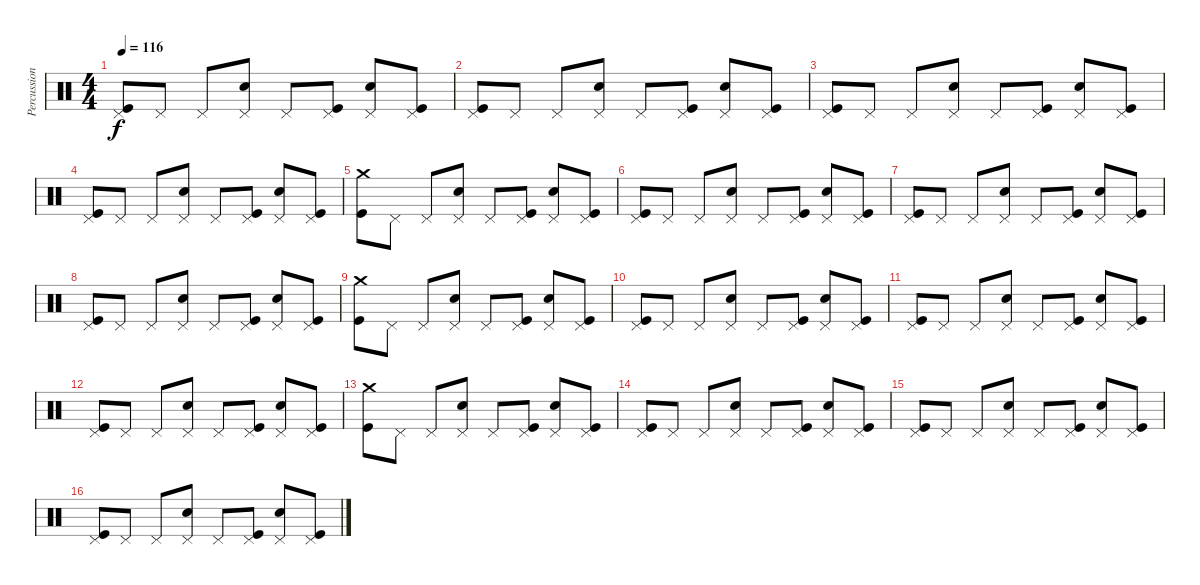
\track ("Percussions" "Percussion") {instrument percussion}
\staff {score}
\articulation defaults
\ts (4 4)
\tempo 116
\clef neutral
\ks c
("Pedal Hi-Hat (hit)" "Kick (hit)").8{dy f} "Pedal Hi-Hat (hit)".8 "Pedal Hi-Hat (hit)".8 ("Pedal Hi-Hat (hit)" "Snare (hit) 2").8 "Pedal Hi-Hat (hit)".8 ("Pedal Hi-Hat (hit)" "Kick (hit)").8 ("Pedal Hi-Hat (hit)" "Snare (hit) 2").8 ("Pedal Hi-Hat (hit)" "Kick (hit)").8 |
("Pedal Hi-Hat (hit)" "Kick (hit)").8 "Pedal Hi-Hat (hit)".8 "Pedal Hi-Hat (hit)".8 ("Pedal Hi-Hat (hit)" "Snare (hit) 2").8 "Pedal Hi-Hat (hit)".8 ("Pedal Hi-Hat (hit)" "Kick (hit)").8 ("Pedal Hi-Hat (hit)" "Snare (hit) 2").8 ("Pedal Hi-Hat (hit)" "Kick (hit)").8 |
("Pedal Hi-Hat (hit)" "Kick (hit)").8 "Pedal Hi-Hat (hit)".8 "Pedal Hi-Hat (hit)".8 ("Pedal Hi-Hat (hit)" "Snare (hit) 2").8 "Pedal Hi-Hat (hit)".8 ("Pedal Hi-Hat (hit)" "Kick (hit)").8 ("Pedal Hi-Hat (hit)" "Snare (hit) 2").8 ("Pedal Hi-Hat (hit)" "Kick (hit)").8 |
("Pedal Hi-Hat (hit)" "Kick (hit)").8 "Pedal Hi-Hat (hit)".8 "Pedal Hi-Hat (hit)".8 ("Pedal Hi-Hat (hit)" "Snare (hit) 2").8 "Pedal Hi-Hat (hit)".8 ("Pedal Hi-Hat (hit)" "Kick (hit)").8 ("Pedal Hi-Hat (hit)" "Snare (hit) 2").8 ("Pedal Hi-Hat (hit)" "Kick (hit)").8 |
("Crash medium (hit)" "Kick (hit)").8 "Pedal Hi-Hat (hit)".8 "Pedal Hi-Hat (hit)".8 ("Pedal Hi-Hat (hit)" "Snare (hit) 2").8 "Pedal Hi-Hat (hit)".8 ("Pedal Hi-Hat (hit)" "Kick (hit)").8 ("Pedal Hi-Hat (hit)" "Snare (hit) 2").8 ("Pedal Hi-Hat (hit)" "Kick (hit)").8 |
("Pedal Hi-Hat (hit)" "Kick (hit)").8 "Pedal Hi-Hat (hit)".8 "Pedal Hi-Hat (hit)".8 ("Pedal Hi-Hat (hit)" "Snare (hit) 2").8 "Pedal Hi-Hat (hit)".8 ("Pedal Hi-Hat (hit)" "Kick (hit)").8 ("Pedal Hi-Hat (hit)" "Snare (hit) 2").8 ("Pedal Hi-Hat (hit)" "Kick (hit)").8 |
("Pedal Hi-Hat (hit)" "Kick (hit)").8 "Pedal Hi-Hat (hit)".8 "Pedal Hi-Hat (hit)".8 ("Pedal Hi-Hat (hit)" "Snare (hit) 2").8 "Pedal Hi-Hat (hit)".8 ("Pedal Hi-Hat (hit)" "Kick (hit)").8 ("Pedal Hi-Hat (hit)" "Snare (hit) 2").8 ("Pedal Hi-Hat (hit)" "Kick (hit)").8 |
("Pedal Hi-Hat (hit)" "Kick (hit)").8 "Pedal Hi-Hat (hit)".8 "Pedal Hi-Hat (hit)".8 ("Pedal Hi-Hat (hit)" "Snare (hit) 2").8 "Pedal Hi-Hat (hit)".8 ("Pedal Hi-Hat (hit)" "Kick (hit)").8 ("Pedal Hi-Hat (hit)" "Snare (hit) 2").8 ("Pedal Hi-Hat (hit)" "Kick (hit)").8 |
("Crash medium (hit)" "Kick (hit)").8 "Pedal Hi-Hat (hit)".8 "Pedal Hi-Hat (hit)".8 ("Pedal Hi-Hat (hit)" "Snare (hit) 2").8 "Pedal Hi-Hat (hit)".8 ("Pedal Hi-Hat (hit)" "Kick (hit)").8 ("Pedal Hi-Hat (hit)" "Snare (hit) 2").8 ("Pedal Hi-Hat (hit)" "Kick (hit)").8 |
("Pedal Hi-Hat (hit)" "Kick (hit)").8 "Pedal Hi-Hat (hit)".8 "Pedal Hi-Hat (hit)".8 ("Pedal Hi-Hat (hit)" "Snare (hit) 2").8 "Pedal Hi-Hat (hit)".8 ("Pedal Hi-Hat (hit)" "Kick (hit)").8 ("Pedal Hi-Hat (hit)" "Snare (hit) 2").8 ("Pedal Hi-Hat (hit)" "Kick (hit)").8 |
("Pedal Hi-Hat (hit)" "Kick (hit)").8 "Pedal Hi-Hat (hit)".8 "Pedal Hi-Hat (hit)".8 ("Pedal Hi-Hat (hit)" "Snare (hit) 2").8 "Pedal Hi-Hat (hit)".8 ("Pedal Hi-Hat (hit)" "Kick (hit)").8 ("Pedal Hi-Hat (hit)" "Snare (hit) 2").8 ("Pedal Hi-Hat (hit)" "Kick (hit)").8 |
("Pedal Hi-Hat (hit)" "Kick (hit)").8 "Pedal Hi-Hat (hit)".8 "Pedal Hi-Hat (hit)".8 ("Pedal Hi-Hat (hit)" "Snare (hit) 2").8 "Pedal Hi-Hat (hit)".8 ("Pedal Hi-Hat (hit)" "Kick (hit)").8 ("Pedal Hi-Hat (hit)" "Snare (hit) 2").8 ("Pedal Hi-Hat (hit)" "Kick (hit)").8 |
("Crash medium (hit)" "Kick (hit)").8 "Pedal Hi-Hat (hit)".8 "Pedal Hi-Hat (hit)".8 ("Pedal Hi-Hat (hit)" "Snare (hit) 2").8 "Pedal Hi-Hat (hit)".8 ("Pedal Hi-Hat (hit)" "Kick (hit)").8 ("Pedal Hi-Hat (hit)" "Snare (hit) 2").8 ("Pedal Hi-Hat (hit)" "Kick (hit)").8 |
("Pedal Hi-Hat (hit)" "Kick (hit)").8 "Pedal Hi-Hat (hit)".8 "Pedal Hi-Hat (hit)".8 ("Pedal Hi-Hat (hit)" "Snare (hit) 2").8 "Pedal Hi-Hat (hit)".8 ("Pedal Hi-Hat (hit)" "Kick (hit)").8 ("Pedal Hi-Hat (hit)" "Snare (hit) 2").8 ("Pedal Hi-Hat (hit)" "Kick (hit)").8 |
("Pedal Hi-Hat (hit)" "Kick (hit)").8 "Pedal Hi-Hat (hit)".8 "Pedal Hi-Hat (hit)".8 ("Pedal Hi-Hat (hit)" "Snare (hit) 2").8 "Pedal Hi-Hat (hit)".8 ("Pedal Hi-Hat (hit)" "Kick (hit)").8 ("Pedal Hi-Hat (hit)" "Snare (hit) 2").8 ("Pedal Hi-Hat (hit)" "Kick (hit)").8 |
("Pedal Hi-Hat (hit)" "Kick (hit)").8 "Pedal Hi-Hat (hit)".8 "Pedal Hi-Hat (hit)".8 ("Pedal Hi-Hat (hit)" "Snare (hit) 2").8 "Pedal Hi-Hat (hit)".8 ("Pedal Hi-Hat (hit)" "Kick (hit)").8 ("Pedal Hi-Hat (hit)" "Snare (hit) 2").8 ("Pedal Hi-Hat (hit)" "Kick (hit)").8
